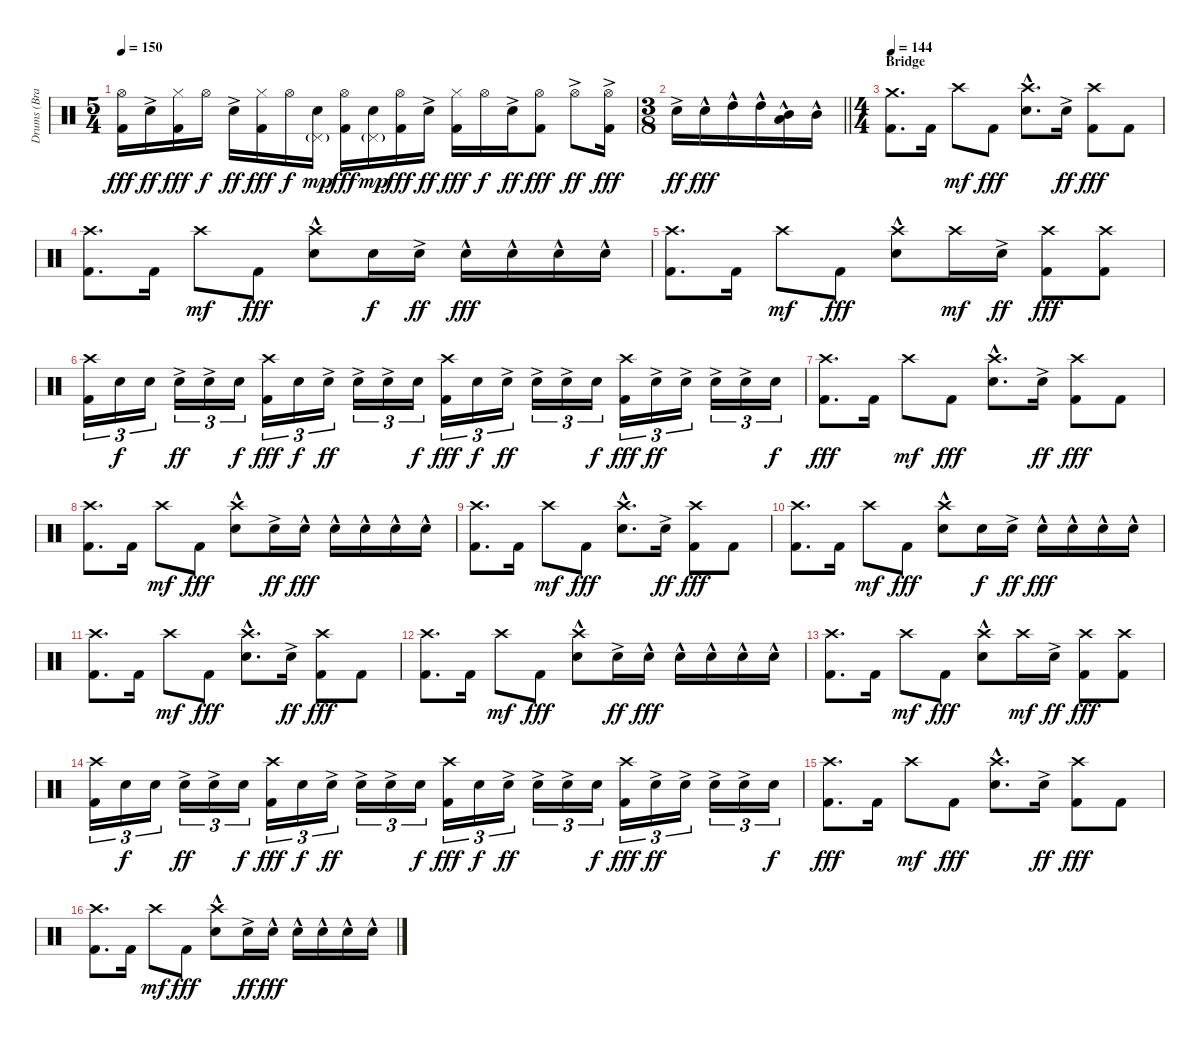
\track ("Drums (Brann Dailor)" "Drums (Bra") {instrument percussion}
\staff {score}
\articulation defaults
\ts (5 4)
\tempo 150
\clef neutral
\ks c
("Hi-Hat (open)" "Kick (hit) 2").16{dy fff} "Electric Snare (hit)"{ac}.16{dy ff} ("Hi-Hat (closed)" "Kick (hit) 2").16{dy fff} "Hi-Hat (open)".16{dy f} "Electric Snare (hit)"{ac}.16{dy ff} ("Hi-Hat (closed)" "Kick (hit) 2").16{dy fff} "Hi-Hat (open)".16{dy f} ("Pedal Hi-Hat (hit)"{g} "Electric Snare (hit)").16{dy mp} ("Hi-Hat (open)" "Kick (hit) 2").16{dy fff} ("Pedal Hi-Hat (hit)"{g} "Electric Snare (hit)").16{dy mp} ("Hi-Hat (open)" "Kick (hit) 2").16{dy fff} "Electric Snare (hit)"{ac}.16{dy ff} ("Hi-Hat (closed)" "Kick (hit) 2").16{dy fff} "Hi-Hat (open)".16{dy f} "Electric Snare (hit)"{ac}.16{dy ff} ("Hi-Hat (open)" "Kick (hit) 2").8{dy fff} "Hi-Hat (open)"{ac}.8{dy ff} ("Hi-Hat (open)"{ac} "Kick (hit) 2").16{dy fff} |
\ts (3 8)
\barLineRight lightlight "Electric Snare (hit)"{ac}.16{dy ff} "Electric Snare (hit)"{hac}.16{dy fff} "High Tom (hit)"{hac}.16 "High Tom (hit)"{hac}.16
("Mid Tom (hit)"{hac} "Low Tom (hit)"{hac}).16 "Mid Tom (hit)"{hac}.16 |
\ts (4 4)
\section ("" "Bridge")
\tempo 144
("Crash medium (hit)" "Kick (hit) 2").8{d} "Kick (hit) 2".16 "Crash high (hit)".8{dy mf} "Kick (hit) 2".8{dy fff} ("Crash high (hit)" "Electric Snare (hit)"{hac}).8{d} "Electric Snare (hit)"{ac}.16{dy ff} ("Crash high (hit)" "Kick (hit) 2").8{dy fff} "Kick (hit) 2".8 |
("Crash high (hit)" "Kick (hit) 2").8{d} "Kick (hit) 2".16 "Crash high (hit)".8{dy mf} "Kick (hit) 2".8{dy fff} ("Crash high (hit)" "Electric Snare (hit)"{hac}).8 "Electric Snare (hit)".16{dy f} "Electric Snare (hit)"{ac}.16{dy ff} "Electric Snare (hit)"{hac}.16{dy fff} "Electric Snare (hit)"{hac}.16 "Electric Snare (hit)"{hac}.16 "Electric Snare (hit)"{hac}.16 |
("Crash high (hit)" "Kick (hit) 2").8{d} "Kick (hit) 2".16 "Crash high (hit)".8{dy mf} "Kick (hit) 2".8{dy fff} ("Crash high (hit)" "Electric Snare (hit)"{hac}).8 "Crash high (hit)".16{dy mf} "Electric Snare (hit)"{ac}.16{dy ff} ("Crash high (hit)" "Kick (hit) 2").8{dy fff} ("Crash high (hit)" "Kick (hit) 2").8 |
("Crash high (hit)" "Kick (hit) 2").16{tu (3 2)} "Electric Snare (hit)".16{tu (3 2) dy f} "Electric Snare (hit)".16{tu (3 2) beam splitsecondary} "Electric Snare (hit)"{ac}.16{tu (3 2) dy ff} "Electric Snare (hit)"{ac}.16{tu (3 2)} "Electric Snare (hit)".16{tu (3 2) dy f} ("Crash high (hit)" "Kick (hit) 2").16{tu (3 2) dy fff} "Electric Snare (hit)".16{tu (3 2) dy f} "Electric Snare (hit)"{ac}.16{tu (3 2) dy ff beam splitsecondary} "Electric Snare (hit)"{ac}.16{tu (3 2)} "Electric Snare (hit)"{ac}.16{tu (3 2)} "Electric Snare (hit)".16{tu (3 2) dy f} ("Crash high (hit)" "Kick (hit) 2").16{tu (3 2) dy fff} "Electric Snare (hit)".16{tu (3 2) dy f} "Electric Snare (hit)"{ac}.16{tu (3 2) dy ff beam splitsecondary} "Electric Snare (hit)"{ac}.16{tu (3 2)} "Electric Snare (hit)"{ac}.16{tu (3 2)} "Electric Snare (hit)".16{tu (3 2) dy f} ("Crash high (hit)" "Kick (hit) 2").16{tu (3 2) dy fff} "Electric Snare (hit)"{ac}.16{tu (3 2) dy ff} "Electric Snare (hit)"{ac}.16{tu (3 2) beam splitsecondary} "Electric Snare (hit)"{ac}.16{tu (3 2)} "Electric Snare (hit)"{ac}.16{tu (3 2)} "Electric Snare (hit)".16{tu (3 2) dy f} |
("Crash high (hit)" "Kick (hit) 2").8{d dy fff} "Kick (hit) 2".16 "Crash high (hit)".8{dy mf} "Kick (hit) 2".8{dy fff} ("Crash high (hit)" "Electric Snare (hit)"{hac}).8{d} "Electric Snare (hit)"{ac}.16{dy ff} ("Crash high (hit)" "Kick (hit) 2").8{dy fff} "Kick (hit) 2".8 |
("Crash high (hit)" "Kick (hit) 2").8{d} "Kick (hit) 2".16 "Crash high (hit)".8{dy mf} "Kick (hit) 2".8{dy fff} ("Crash high (hit)" "Electric Snare (hit)"{hac}).8 "Electric Snare (hit)"{ac}.16{dy ff} "Electric Snare (hit)"{hac}.16{dy fff} "Electric Snare (hit)"{hac}.16 "Electric Snare (hit)"{hac}.16 "Electric Snare (hit)"{hac}.16 "Electric Snare (hit)"{hac}.16 |
("Crash high (hit)" "Kick (hit) 2").8{d} "Kick (hit) 2".16 "Crash high (hit)".8{dy mf} "Kick (hit) 2".8{dy fff} ("Crash high (hit)" "Electric Snare (hit)"{hac}).8{d} "Electric Snare (hit)"{ac}.16{dy ff} ("Crash high (hit)" "Kick (hit) 2").8{dy fff} "Kick (hit) 2".8 |
("Crash high (hit)" "Kick (hit) 2").8{d} "Kick (hit) 2".16 "Crash high (hit)".8{dy mf} "Kick (hit) 2".8{dy fff} ("Crash high (hit)" "Electric Snare (hit)"{hac}).8 "Electric Snare (hit)".16{dy f} "Electric Snare (hit)"{ac}.16{dy ff} "Electric Snare (hit)"{hac}.16{dy fff} "Electric Snare (hit)"{hac}.16 "Electric Snare (hit)"{hac}.16 "Electric Snare (hit)"{hac}.16 |
("Crash high (hit)" "Kick (hit) 2").8{d} "Kick (hit) 2".16 "Crash high (hit)".8{dy mf} "Kick (hit) 2".8{dy fff} ("Crash high (hit)" "Electric Snare (hit)"{hac}).8{d} "Electric Snare (hit)"{ac}.16{dy ff} ("Crash high (hit)" "Kick (hit) 2").8{dy fff} "Kick (hit) 2".8 |
("Crash high (hit)" "Kick (hit) 2").8{d} "Kick (hit) 2".16 "Crash high (hit)".8{dy mf} "Kick (hit) 2".8{dy fff} ("Crash high (hit)" "Electric Snare (hit)"{hac}).8 "Electric Snare (hit)"{ac}.16{dy ff} "Electric Snare (hit)"{hac}.16{dy fff} "Electric Snare (hit)"{hac}.16 "Electric Snare (hit)"{hac}.16 "Electric Snare (hit)"{hac}.16 "Electric Snare (hit)"{hac}.16 |
("Crash high (hit)" "Kick (hit) 2").8{d} "Kick (hit) 2".16 "Crash high (hit)".8{dy mf} "Kick (hit) 2".8{dy fff} ("Crash high (hit)" "Electric Snare (hit)"{hac}).8 "Crash high (hit)".16{dy mf} "Electric Snare (hit)"{ac}.16{dy ff} ("Crash high (hit)" "Kick (hit) 2").8{dy fff} ("Crash high (hit)" "Kick (hit) 2").8 |
("Crash high (hit)" "Kick (hit) 2").16{tu (3 2)} "Electric Snare (hit)".16{tu (3 2) dy f} "Electric Snare (hit)".16{tu (3 2) beam splitsecondary} "Electric Snare (hit)"{ac}.16{tu (3 2) dy ff} "Electric Snare (hit)"{ac}.16{tu (3 2)} "Electric Snare (hit)".16{tu (3 2) dy f} ("Crash high (hit)" "Kick (hit) 2").16{tu (3 2) dy fff} "Electric Snare (hit)".16{tu (3 2) dy f} "Electric Snare (hit)"{ac}.16{tu (3 2) dy ff beam splitsecondary} "Electric Snare (hit)"{ac}.16{tu (3 2)} "Electric Snare (hit)"{ac}.16{tu (3 2)} "Electric Snare (hit)".16{tu (3 2) dy f} ("Crash high (hit)" "Kick (hit) 2").16{tu (3 2) dy fff} "Electric Snare (hit)".16{tu (3 2) dy f} "Electric Snare (hit)"{ac}.16{tu (3 2) dy ff beam splitsecondary} "Electric Snare (hit)"{ac}.16{tu (3 2)} "Electric Snare (hit)"{ac}.16{tu (3 2)} "Electric Snare (hit)".16{tu (3 2) dy f} ("Crash high (hit)" "Kick (hit) 2").16{tu (3 2) dy fff} "Electric Snare (hit)"{ac}.16{tu (3 2) dy ff} "Electric Snare (hit)"{ac}.16{tu (3 2) beam splitsecondary} "Electric Snare (hit)"{ac}.16{tu (3 2)} "Electric Snare (hit)"{ac}.16{tu (3 2)} "Electric Snare (hit)".16{tu (3 2) dy f} |
("Crash high (hit)" "Kick (hit) 2").8{d dy fff} "Kick (hit) 2".16 "Crash high (hit)".8{dy mf} "Kick (hit) 2".8{dy fff} ("Crash high (hit)" "Electric Snare (hit)"{hac}).8{d} "Electric Snare (hit)"{ac}.16{dy ff} ("Crash high (hit)" "Kick (hit) 2").8{dy fff} "Kick (hit) 2".8 |
("Crash high (hit)" "Kick (hit) 2").8{d} "Kick (hit) 2".16 "Crash high (hit)".8{dy mf} "Kick (hit) 2".8{dy fff} ("Crash high (hit)" "Electric Snare (hit)"{hac}).8 "Electric Snare (hit)"{ac}.16{dy ff} "Electric Snare (hit)"{hac}.16{dy fff} "Electric Snare (hit)"{hac}.16 "Electric Snare (hit)"{hac}.16 "Electric Snare (hit)"{hac}.16 "Electric Snare (hit)"{hac}.16
